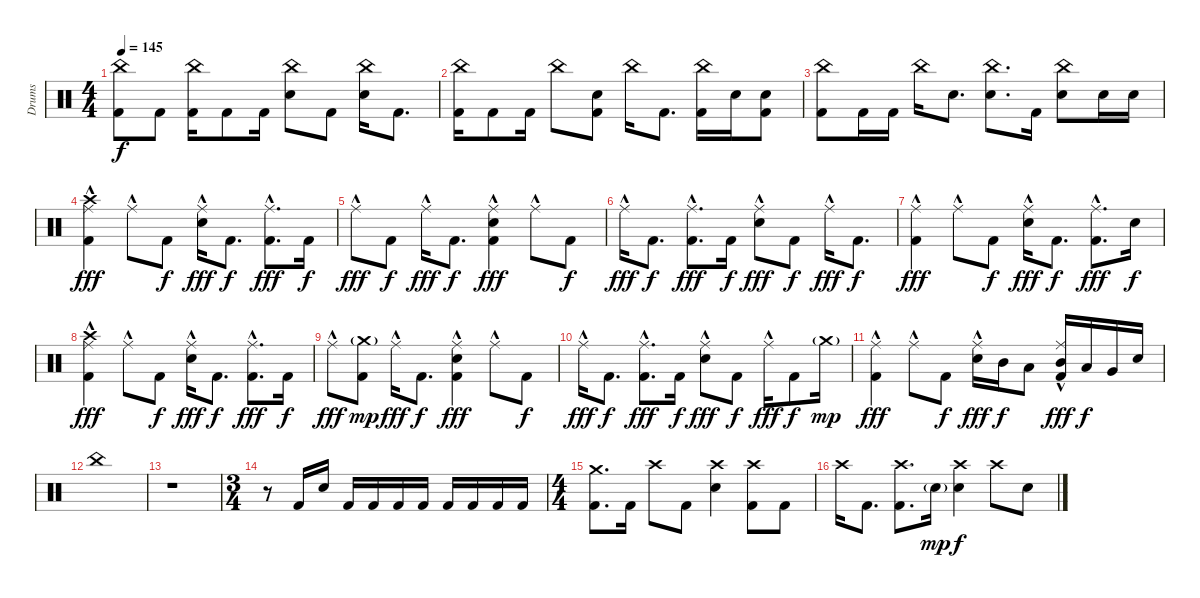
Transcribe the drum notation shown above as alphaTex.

\track ("Drums" "Drums") {instrument percussion}
\staff {score}
\articulation defaults
\ts (4 4)
\tempo 145
\clef neutral
\ks c
("China (hit)" "Kick (hit) 2").8{dy f} "Kick (hit) 2".8 ("China (hit)" "Kick (hit) 2").16 "Kick (hit) 2".8 "Kick (hit) 2".16 ("China (hit)" "Snare (hit) 2").8 "Kick (hit) 2".8 ("China (hit)" "Snare (hit) 2").16 "Kick (hit) 2".8{d} |
("China (hit)" "Kick (hit) 2").16 "Kick (hit) 2".8 "Kick (hit) 2".16 "China (hit)".8 ("Snare (hit) 2" "Kick (hit) 2").8 "China (hit)".16 "Kick (hit) 2".8{d} ("China (hit)" "Kick (hit) 2").16 "Snare (hit) 2".16 ("Snare (hit) 2" "Kick (hit) 2").8 |
("China (hit)" "Kick (hit) 2").8 "Kick (hit) 2".16 "Kick (hit) 2".16 "China (hit)".16 "Snare (hit) 2".8{d} ("China (hit)" "Snare (hit) 2").8{d} "Kick (hit) 2".16 ("China (hit)" "Snare (hit) 2").8 "Snare (hit) 2".16 "Snare (hit) 2".16 |
("Ride (middle)"{hac} "Crash high (hit)" "Kick (hit) 2").4{dy fff} "Ride (middle)"{hac}.8 "Kick (hit) 2".8{dy f} ("Ride (middle)"{hac} "Snare (hit) 2").16{dy fff} "Kick (hit) 2".8{d dy f} ("Ride (middle)"{hac} "Kick (hit) 2").8{d dy fff} "Kick (hit) 2".16{dy f} |
"Ride (middle)"{hac}.8{dy fff} "Kick (hit) 2".8{dy f} "Ride (middle)"{hac}.16{dy fff} "Kick (hit) 2".8{d dy f} ("Ride (middle)"{hac} "Snare (hit) 2" "Kick (hit) 2").4{dy fff} "Ride (middle)"{hac}.8 "Kick (hit) 2".8{dy f} |
"Ride (middle)"{hac}.16{dy fff} "Kick (hit) 2".8{d dy f} ("Ride (middle)"{hac} "Kick (hit) 2").8{d dy fff} "Kick (hit) 2".16{dy f} ("Ride (middle)"{hac} "Snare (hit) 2").8{dy fff} "Kick (hit) 2".8{dy f} "Ride (middle)"{hac}.16{dy fff} "Kick (hit) 2".8{d dy f} |
("Ride (middle)"{hac} "Kick (hit) 2").4{dy fff} "Ride (middle)"{hac}.8 "Kick (hit) 2".8{dy f} ("Ride (middle)"{hac} "Snare (hit) 2").16{dy fff} "Kick (hit) 2".8{d dy f} ("Ride (middle)"{hac} "Kick (hit) 2").8{d dy fff} "Snare (hit) 2".16{dy f} |
("Ride (middle)"{hac} "Crash high (hit)" "Kick (hit) 2").4{dy fff} "Ride (middle)"{hac}.8 "Kick (hit) 2".8{dy f} ("Ride (middle)"{hac} "Snare (hit) 2").16{dy fff} "Kick (hit) 2".8{d dy f} ("Ride (middle)"{hac} "Kick (hit) 2").8{d dy fff} "Kick (hit) 2".16{dy f} |
"Ride (middle)"{hac}.8{dy fff} ("Crash medium (hit)"{g} "Kick (hit) 2").8{dy mp} "Ride (middle)"{hac}.16{dy fff} "Kick (hit) 2".8{d dy f} ("Ride (middle)"{hac} "Snare (hit) 2" "Kick (hit) 2").4{dy fff} "Ride (middle)"{hac}.8 "Kick (hit) 2".8{dy f} |
"Ride (middle)"{hac}.16{dy fff} "Kick (hit) 2".8{d dy f} ("Ride (middle)"{hac} "Kick (hit) 2").8{d dy fff} "Kick (hit) 2".16{dy f} ("Ride (middle)"{hac} "Snare (hit) 2").8{dy fff} "Kick (hit) 2".8{dy f} "Ride (middle)"{hac}.16{dy fff} "Kick (hit) 2".8{dy f} "Crash medium (hit)"{g}.16{dy mp} |
("Ride (middle)"{hac} "Kick (hit) 2").4{dy fff} "Ride (middle)"{hac}.8 "Kick (hit) 2".8{dy f} ("Ride (middle)"{hac} "Snare (hit) 2").16{dy fff} "Mid Tom (hit)".16{dy f} "Low Tom (hit)".8 ("Ride (middle)"{hac} "Mid Tom (hit)" "Kick (hit) 2").16{dy fff} "Low Tom (hit)".16{dy f} "Very Low Tom (hit)".16 "Snare (hit) 2".16 |
"China (hit)".1 |
r.1 |
\ts (3 4)
r.8 "Kick (hit) 2".16 "Snare (hit) 2".16 "Kick (hit) 2".16 "Kick (hit) 2".16 "Kick (hit) 2".16 "Kick (hit) 2".16 "Kick (hit) 2".16 "Kick (hit) 2".16 "Kick (hit) 2".16 "Kick (hit) 2".16 |
\ts (4 4)
("Crash medium (hit)" "Kick (hit) 2").8{d} "Kick (hit) 2".16 "Crash high (hit)".8 "Kick (hit) 2".8 ("Crash high (hit)" "Snare (hit) 2").4 ("Crash high (hit)" "Kick (hit) 2").8 "Kick (hit) 2".8 |
"Crash high (hit)".16 "Kick (hit) 2".8{d} ("Crash high (hit)" "Kick (hit) 2").8{d} "Snare (hit) 2"{g}.16{dy mp} ("Crash high (hit)" "Snare (hit) 2").4{dy f} "Crash high (hit)".8 "Snare (hit) 2".8
